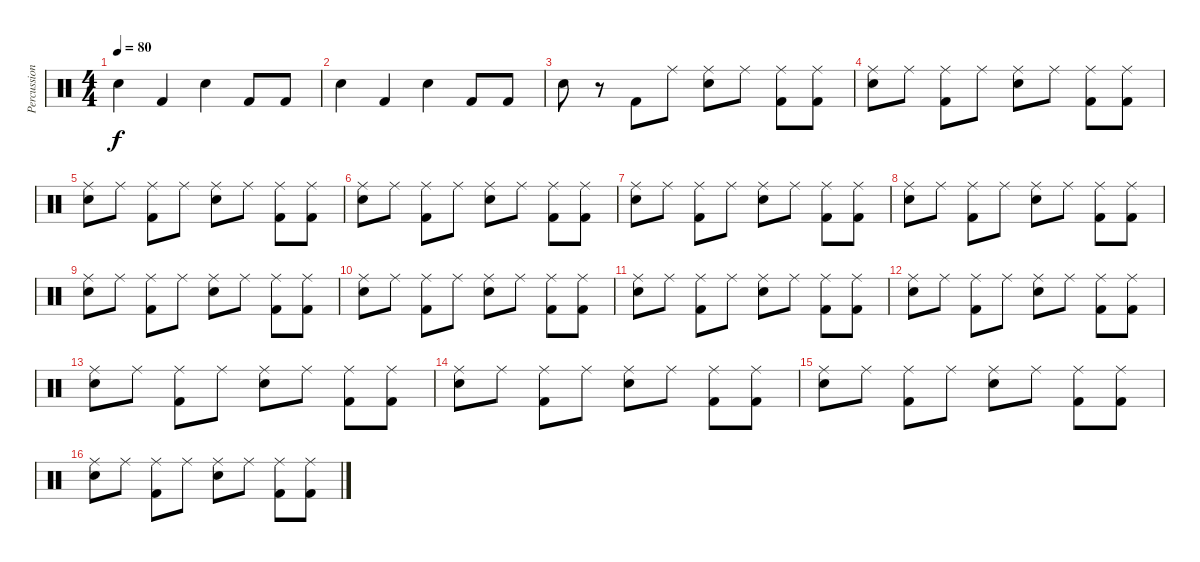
\track ("Percussions" "Percussion") {instrument percussion}
\staff {score}
\articulation defaults
\ts (4 4)
\tempo 80
\clef neutral
\ks c "Snare (hit) 2".4{dy f} "Kick (hit) 2".4 "Snare (hit) 2".4 "Kick (hit) 2".8 "Kick (hit) 2".8
|
"Snare (hit) 2".4 "Kick (hit) 2".4 "Snare (hit) 2".4 "Kick (hit) 2".8 "Kick (hit) 2".8 |
"Snare (hit) 2".8 r.8 "Kick (hit) 2".8 "Ride (middle)".8 ("Ride (middle)" "Snare (hit) 2").8 "Ride (middle)".8 ("Ride (middle)" "Kick (hit) 2").8 ("Ride (middle)" "Kick (hit) 2").8 |
("Ride (middle)" "Snare (hit) 2").8 "Ride (middle)".8 ("Ride (middle)" "Kick (hit) 2").8 "Ride (middle)".8 ("Ride (middle)" "Snare (hit) 2").8 "Ride (middle)".8 ("Ride (middle)" "Kick (hit) 2").8 ("Ride (middle)" "Kick (hit) 2").8 |
("Ride (middle)" "Snare (hit) 2").8 "Ride (middle)".8 ("Ride (middle)" "Kick (hit) 2").8 "Ride (middle)".8 ("Ride (middle)" "Snare (hit) 2").8 "Ride (middle)".8 ("Ride (middle)" "Kick (hit) 2").8 ("Ride (middle)" "Kick (hit) 2").8 |
("Ride (middle)" "Snare (hit) 2").8 "Ride (middle)".8 ("Ride (middle)" "Kick (hit) 2").8 "Ride (middle)".8 ("Ride (middle)" "Snare (hit) 2").8 "Ride (middle)".8 ("Ride (middle)" "Kick (hit) 2").8 ("Ride (middle)" "Kick (hit) 2").8 |
("Ride (middle)" "Snare (hit) 2").8 "Ride (middle)".8 ("Ride (middle)" "Kick (hit) 2").8 "Ride (middle)".8 ("Ride (middle)" "Snare (hit) 2").8 "Ride (middle)".8 ("Ride (middle)" "Kick (hit) 2").8 ("Ride (middle)" "Kick (hit) 2").8 |
("Ride (middle)" "Snare (hit) 2").8 "Ride (middle)".8 ("Ride (middle)" "Kick (hit) 2").8 "Ride (middle)".8 ("Ride (middle)" "Snare (hit) 2").8 "Ride (middle)".8 ("Ride (middle)" "Kick (hit) 2").8 ("Ride (middle)" "Kick (hit) 2").8 |
("Ride (middle)" "Snare (hit) 2").8 "Ride (middle)".8 ("Ride (middle)" "Kick (hit) 2").8 "Ride (middle)".8 ("Ride (middle)" "Snare (hit) 2").8 "Ride (middle)".8 ("Ride (middle)" "Kick (hit) 2").8 ("Ride (middle)" "Kick (hit) 2").8 |
("Ride (middle)" "Snare (hit) 2").8 "Ride (middle)".8 ("Ride (middle)" "Kick (hit) 2").8 "Ride (middle)".8 ("Ride (middle)" "Snare (hit) 2").8 "Ride (middle)".8 ("Ride (middle)" "Kick (hit) 2").8 ("Ride (middle)" "Kick (hit) 2").8 |
("Ride (middle)" "Snare (hit) 2").8 "Ride (middle)".8 ("Ride (middle)" "Kick (hit) 2").8 "Ride (middle)".8 ("Ride (middle)" "Snare (hit) 2").8 "Ride (middle)".8 ("Ride (middle)" "Kick (hit) 2").8 ("Ride (middle)" "Kick (hit) 2").8 |
("Ride (middle)" "Snare (hit) 2").8 "Ride (middle)".8 ("Ride (middle)" "Kick (hit) 2").8 "Ride (middle)".8 ("Ride (middle)" "Snare (hit) 2").8 "Ride (middle)".8 ("Ride (middle)" "Kick (hit) 2").8 ("Ride (middle)" "Kick (hit) 2").8 |
("Ride (middle)" "Snare (hit) 2").8 "Ride (middle)".8 ("Ride (middle)" "Kick (hit) 2").8 "Ride (middle)".8 ("Ride (middle)" "Snare (hit) 2").8 "Ride (middle)".8 ("Ride (middle)" "Kick (hit) 2").8 ("Ride (middle)" "Kick (hit) 2").8 |
("Ride (middle)" "Snare (hit) 2").8 "Ride (middle)".8 ("Ride (middle)" "Kick (hit) 2").8 "Ride (middle)".8 ("Ride (middle)" "Snare (hit) 2").8 "Ride (middle)".8 ("Ride (middle)" "Kick (hit) 2").8 ("Ride (middle)" "Kick (hit) 2").8 |
("Ride (middle)" "Snare (hit) 2").8 "Ride (middle)".8 ("Ride (middle)" "Kick (hit) 2").8 "Ride (middle)".8 ("Ride (middle)" "Snare (hit) 2").8 "Ride (middle)".8 ("Ride (middle)" "Kick (hit) 2").8 ("Ride (middle)" "Kick (hit) 2").8 |
("Ride (middle)" "Snare (hit) 2").8 "Ride (middle)".8 ("Ride (middle)" "Kick (hit) 2").8 "Ride (middle)".8 ("Ride (middle)" "Snare (hit) 2").8 "Ride (middle)".8 ("Ride (middle)" "Kick (hit) 2").8 ("Ride (middle)" "Kick (hit) 2").8
